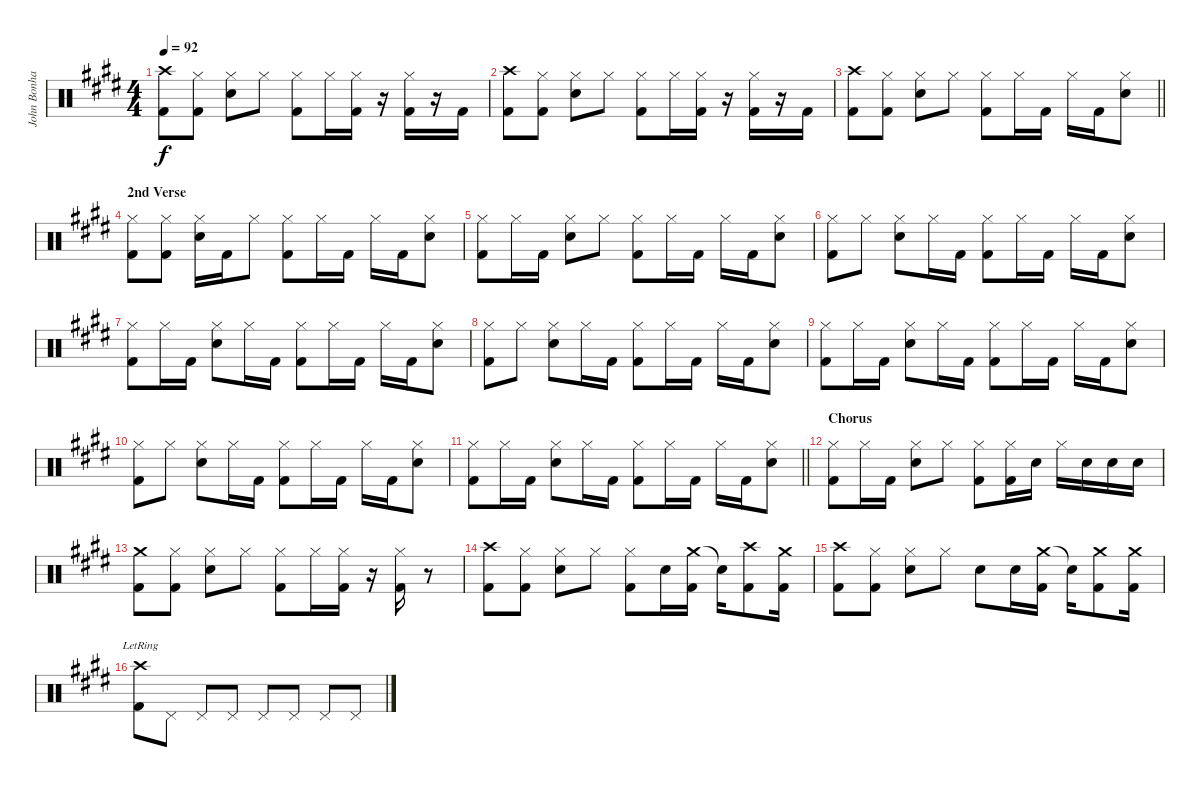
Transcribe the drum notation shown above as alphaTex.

\track ("John Bonham Drums" "John Bonha") {instrument percussion}
\staff {score}
\articulation defaults
\ts (4 4)
\tempo 92
\clef neutral
\ks e
("Crash high (hit)" "Kick (hit) 2").8{dy f} ("Hi-Hat (closed)" "Kick (hit) 2").8 ("Hi-Hat (closed)" "Snare (hit) 2").8 "Hi-Hat (closed)".8 ("Hi-Hat (closed)" "Kick (hit) 2").8 "Hi-Hat (closed)".16 ("Hi-Hat (closed)" "Kick (hit) 2").16 r.16 ("Hi-Hat (closed)" "Kick (hit) 2").16 r.16 "Kick (hit) 2".16 |
("Crash high (hit)" "Kick (hit) 2").8 ("Hi-Hat (closed)" "Kick (hit) 2").8 ("Hi-Hat (closed)" "Snare (hit) 2").8 "Hi-Hat (closed)".8 ("Hi-Hat (closed)" "Kick (hit) 2").8 "Hi-Hat (closed)".16 ("Hi-Hat (closed)" "Kick (hit) 2").16 r.16 ("Hi-Hat (closed)" "Kick (hit) 2").16 r.16 "Kick (hit) 2".16 |
\barLineRight lightlight
("Crash high (hit)" "Kick (hit) 2").8 ("Hi-Hat (closed)" "Kick (hit) 2").8 ("Hi-Hat (closed)" "Snare (hit) 2").8 "Hi-Hat (closed)".8 ("Hi-Hat (closed)" "Kick (hit) 2").8 "Hi-Hat (closed)".16 "Kick (hit) 2".16 "Hi-Hat (closed)".16 "Kick (hit) 2".16 ("Hi-Hat (closed)" "Snare (hit) 2").8 |
\section ("" "2nd Verse")
("Hi-Hat (closed)" "Kick (hit) 2").8 ("Hi-Hat (closed)" "Kick (hit) 2").8 ("Hi-Hat (closed)" "Snare (hit) 2").16 "Kick (hit) 2".16 "Hi-Hat (closed)".8 ("Hi-Hat (closed)" "Kick (hit) 2").8 "Hi-Hat (closed)".16 "Kick (hit) 2".16 "Hi-Hat (closed)".16 "Kick (hit) 2".16 ("Hi-Hat (closed)" "Snare (hit) 2").8 |
("Hi-Hat (closed)" "Kick (hit) 2").8 "Hi-Hat (closed)".16 "Kick (hit) 2".16 ("Hi-Hat (closed)" "Snare (hit) 2").8 "Hi-Hat (closed)".8 ("Hi-Hat (closed)" "Kick (hit) 2").8 "Hi-Hat (closed)".16 "Kick (hit) 2".16 "Hi-Hat (closed)".16 "Kick (hit) 2".16 ("Hi-Hat (closed)" "Snare (hit) 2").8 |
("Hi-Hat (closed)" "Kick (hit) 2").8 "Hi-Hat (closed)".8 ("Hi-Hat (closed)" "Snare (hit) 2").8 "Hi-Hat (closed)".16 "Kick (hit) 2".16 ("Hi-Hat (closed)" "Kick (hit) 2").8 "Hi-Hat (closed)".16 "Kick (hit) 2".16 "Hi-Hat (closed)".16 "Kick (hit) 2".16 ("Hi-Hat (closed)" "Snare (hit) 2").8 |
("Hi-Hat (closed)" "Kick (hit) 2").8 "Hi-Hat (closed)".16 "Kick (hit) 2".16 ("Hi-Hat (closed)" "Snare (hit) 2").8 "Hi-Hat (closed)".16 "Kick (hit) 2".16 ("Hi-Hat (closed)" "Kick (hit) 2").8 "Hi-Hat (closed)".16 "Kick (hit) 2".16 "Hi-Hat (closed)".16 "Kick (hit) 2".16 ("Hi-Hat (closed)" "Snare (hit) 2").8 |
("Hi-Hat (closed)" "Kick (hit) 2").8 "Hi-Hat (closed)".8 ("Hi-Hat (closed)" "Snare (hit) 2").8 "Hi-Hat (closed)".16 "Kick (hit) 2".16 ("Hi-Hat (closed)" "Kick (hit) 2").8 "Hi-Hat (closed)".16 "Kick (hit) 2".16 "Hi-Hat (closed)".16 "Kick (hit) 2".16 ("Hi-Hat (closed)" "Snare (hit) 2").8 |
("Hi-Hat (closed)" "Kick (hit) 2").8 "Hi-Hat (closed)".16 "Kick (hit) 2".16 ("Hi-Hat (closed)" "Snare (hit) 2").8 "Hi-Hat (closed)".16 "Kick (hit) 2".16 ("Hi-Hat (closed)" "Kick (hit) 2").8 "Hi-Hat (closed)".16 "Kick (hit) 2".16 "Hi-Hat (closed)".16 "Kick (hit) 2".16 ("Hi-Hat (closed)" "Snare (hit) 2").8 |
("Hi-Hat (closed)" "Kick (hit) 2").8 "Hi-Hat (closed)".8 ("Hi-Hat (closed)" "Snare (hit) 2").8 "Hi-Hat (closed)".16 "Kick (hit) 2".16 ("Hi-Hat (closed)" "Kick (hit) 2").8 "Hi-Hat (closed)".16 "Kick (hit) 2".16 "Hi-Hat (closed)".16 "Kick (hit) 2".16 ("Hi-Hat (closed)" "Snare (hit) 2").8 |
\barLineRight lightlight
("Hi-Hat (closed)" "Kick (hit) 2").8 "Hi-Hat (closed)".16 "Kick (hit) 2".16 ("Hi-Hat (closed)" "Snare (hit) 2").8 "Hi-Hat (closed)".16 "Kick (hit) 2".16 ("Hi-Hat (closed)" "Kick (hit) 2").8 "Hi-Hat (closed)".16 "Kick (hit) 2".16 "Hi-Hat (closed)".16 "Kick (hit) 2".16 ("Hi-Hat (closed)" "Snare (hit) 2").8 |
\section ("" "Chorus")
("Hi-Hat (closed)" "Kick (hit) 2").8 "Hi-Hat (closed)".16 "Kick (hit) 2".16 ("Hi-Hat (closed)" "Snare (hit) 2").8 "Hi-Hat (closed)".8 ("Hi-Hat (closed)" "Kick (hit) 2").8 ("Hi-Hat (closed)" "Kick (hit) 2").16 "Snare (hit) 2".16 "Hi-Hat (closed)".16 "Snare (hit) 2".16 "Snare (hit) 2".16 "Snare (hit) 2".16 |
("Crash medium (hit)" "Kick (hit) 2").8 ("Hi-Hat (closed)" "Kick (hit) 2").8 ("Hi-Hat (closed)" "Snare (hit) 2").8 "Hi-Hat (closed)".8 ("Hi-Hat (closed)" "Kick (hit) 2").8 "Hi-Hat (closed)".16 ("Hi-Hat (closed)" "Kick (hit) 2").16 r.16 ("Hi-Hat (closed)" "Kick (hit) 2").16 r.8 |
("Crash high (hit)" "Kick (hit) 2").8 ("Hi-Hat (closed)" "Kick (hit) 2").8 ("Hi-Hat (closed)" "Snare (hit) 2").8 "Hi-Hat (closed)".8 ("Hi-Hat (closed)" "Kick (hit) 2").8 "Snare (hit) 2".16 ("Crash medium (hit)" "Kick (hit) 2").16 "Snare (hit)"{t}.16 ("Crash high (hit)" "Kick (hit) 2").8 ("Crash medium (hit)" "Kick (hit) 2").16 |
("Crash high (hit)" "Kick (hit) 2").8 ("Hi-Hat (closed)" "Kick (hit) 2").8 ("Hi-Hat (closed)" "Snare (hit) 2").8 "Hi-Hat (closed)".8 "Snare (hit) 2".8 "Snare (hit) 2".16 ("Crash medium (hit)" "Kick (hit) 2").16 "Snare (hit)"{t}.16 ("Crash medium (hit)" "Kick (hit) 2").8 ("Crash medium (hit)" "Kick (hit) 2").16 |
("Crash high (hit)"{lr} "Kick (hit) 2").8 "Pedal Hi-Hat (hit)".8 "Pedal Hi-Hat (hit)".8 "Pedal Hi-Hat (hit)".8 "Pedal Hi-Hat (hit)".8 "Pedal Hi-Hat (hit)".8 "Pedal Hi-Hat (hit)".8 "Pedal Hi-Hat (hit)".8
